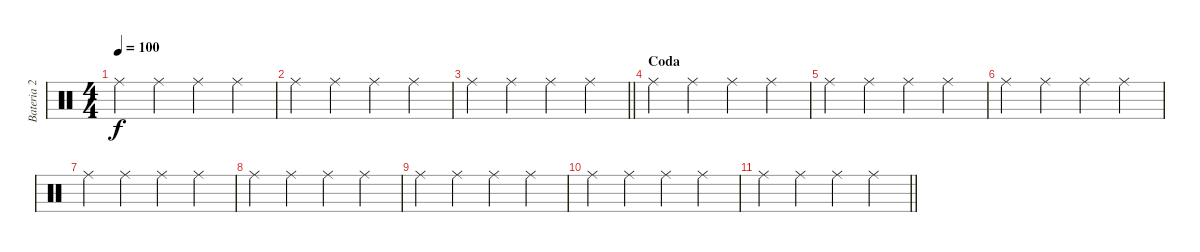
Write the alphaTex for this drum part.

\track ("Bateria 2" "Bateria 2") {instrument percussion}
\staff {score}
\articulation defaults
\ts (4 4)
\tempo 100
\clef neutral
\ks c "Ride (middle)".4{dy f} "Ride (middle)".4 "Ride (middle)".4 "Ride (middle)".4
|
"Ride (middle)".4 "Ride (middle)".4 "Ride (middle)".4 "Ride (middle)".4 |
\barLineRight lightlight "Ride (middle)".4 "Ride (middle)".4 "Ride (middle)".4 "Ride (middle)".4
|
\section ("" "Coda")
"Ride (middle)".4 "Ride (middle)".4 "Ride (middle)".4 "Ride (middle)".4 |
"Ride (middle)".4 "Ride (middle)".4 "Ride (middle)".4 "Ride (middle)".4 |
"Ride (middle)".4 "Ride (middle)".4 "Ride (middle)".4 "Ride (middle)".4 |
"Ride (middle)".4 "Ride (middle)".4 "Ride (middle)".4 "Ride (middle)".4 |
"Ride (middle)".4 "Ride (middle)".4 "Ride (middle)".4 "Ride (middle)".4 |
"Ride (middle)".4 "Ride (middle)".4 "Ride (middle)".4 "Ride (middle)".4 |
"Ride (middle)".4 "Ride (middle)".4 "Ride (middle)".4 "Ride (middle)".4 |
\barLineRight lightlight "Ride (middle)".4 "Ride (middle)".4 "Ride (middle)".4 "Ride (middle)".4
